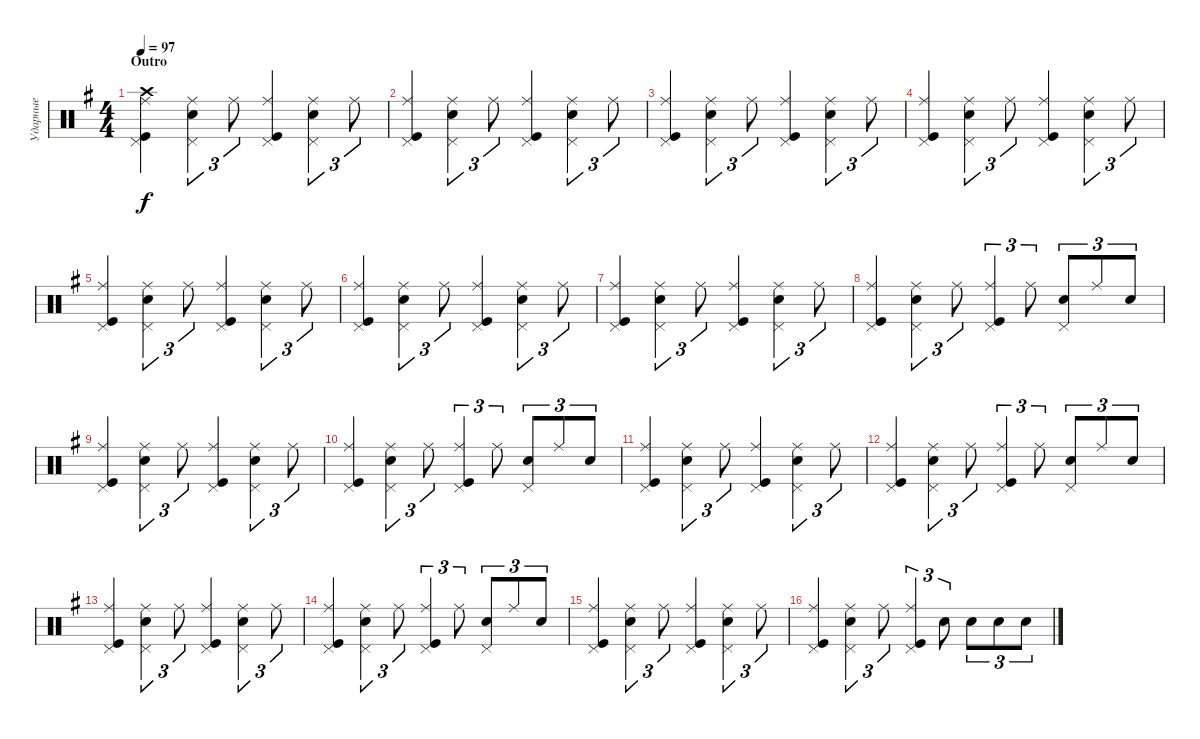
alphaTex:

\track ("Ударные" "Ударные") {instrument percussion}
\staff {score}
\articulation defaults
\ts (4 4)
\section ("" "Outro")
\tempo 97
\clef neutral
\ks eminor
("Kick (hit)" "Ride (middle)" "Pedal Hi-Hat (hit)" "Crash high (hit)").4{dy f} ("Snare (hit) 2" "Ride (middle)" "Pedal Hi-Hat (hit)").4{tu (3 2)} "Ride (middle)".8{tu (3 2)} ("Kick (hit)" "Ride (middle)" "Pedal Hi-Hat (hit)").4 ("Snare (hit) 2" "Ride (middle)" "Pedal Hi-Hat (hit)").4{tu (3 2)} "Ride (middle)".8{tu (3 2)} |
("Kick (hit)" "Ride (middle)" "Pedal Hi-Hat (hit)").4 ("Snare (hit) 2" "Ride (middle)" "Pedal Hi-Hat (hit)").4{tu (3 2)} "Ride (middle)".8{tu (3 2)} ("Kick (hit)" "Ride (middle)" "Pedal Hi-Hat (hit)").4 ("Snare (hit) 2" "Ride (middle)" "Pedal Hi-Hat (hit)").4{tu (3 2)} "Ride (middle)".8{tu (3 2)} |
("Kick (hit)" "Ride (middle)" "Pedal Hi-Hat (hit)").4 ("Snare (hit) 2" "Ride (middle)" "Pedal Hi-Hat (hit)").4{tu (3 2)} "Ride (middle)".8{tu (3 2)} ("Kick (hit)" "Ride (middle)" "Pedal Hi-Hat (hit)").4 ("Snare (hit) 2" "Ride (middle)" "Pedal Hi-Hat (hit)").4{tu (3 2)} "Ride (middle)".8{tu (3 2)} |
("Kick (hit)" "Ride (middle)" "Pedal Hi-Hat (hit)").4 ("Snare (hit) 2" "Ride (middle)" "Pedal Hi-Hat (hit)").4{tu (3 2)} "Ride (middle)".8{tu (3 2)} ("Kick (hit)" "Ride (middle)" "Pedal Hi-Hat (hit)").4 ("Snare (hit) 2" "Ride (middle)" "Pedal Hi-Hat (hit)").4{tu (3 2)} "Ride (middle)".8{tu (3 2)} |
("Kick (hit)" "Ride (middle)" "Pedal Hi-Hat (hit)").4 ("Snare (hit) 2" "Ride (middle)" "Pedal Hi-Hat (hit)").4{tu (3 2)} "Ride (middle)".8{tu (3 2)} ("Kick (hit)" "Ride (middle)" "Pedal Hi-Hat (hit)").4 ("Snare (hit) 2" "Ride (middle)" "Pedal Hi-Hat (hit)").4{tu (3 2)} "Ride (middle)".8{tu (3 2)} |
("Kick (hit)" "Ride (middle)" "Pedal Hi-Hat (hit)").4 ("Snare (hit) 2" "Ride (middle)" "Pedal Hi-Hat (hit)").4{tu (3 2)} "Ride (middle)".8{tu (3 2)} ("Kick (hit)" "Ride (middle)" "Pedal Hi-Hat (hit)").4 ("Snare (hit) 2" "Ride (middle)" "Pedal Hi-Hat (hit)").4{tu (3 2)} "Ride (middle)".8{tu (3 2)} |
("Kick (hit)" "Ride (middle)" "Pedal Hi-Hat (hit)").4 ("Snare (hit) 2" "Ride (middle)" "Pedal Hi-Hat (hit)").4{tu (3 2)} "Ride (middle)".8{tu (3 2)} ("Kick (hit)" "Ride (middle)" "Pedal Hi-Hat (hit)").4 ("Snare (hit) 2" "Ride (middle)" "Pedal Hi-Hat (hit)").4{tu (3 2)} "Ride (middle)".8{tu (3 2)} |
("Kick (hit)" "Ride (middle)" "Pedal Hi-Hat (hit)").4 ("Snare (hit) 2" "Ride (middle)" "Pedal Hi-Hat (hit)").4{tu (3 2)} "Ride (middle)".8{tu (3 2)} ("Kick (hit)" "Ride (middle)" "Pedal Hi-Hat (hit)").4{tu (3 2)} "Ride (middle)".8{tu (3 2)} ("Snare (hit) 2" "Pedal Hi-Hat (hit)").8{tu (3 2)} "Ride (middle)".8{tu (3 2)} "Snare (hit) 2".8{tu (3 2)} |
("Kick (hit)" "Ride (middle)" "Pedal Hi-Hat (hit)").4 ("Snare (hit) 2" "Ride (middle)" "Pedal Hi-Hat (hit)").4{tu (3 2)} "Ride (middle)".8{tu (3 2)} ("Kick (hit)" "Ride (middle)" "Pedal Hi-Hat (hit)").4 ("Snare (hit) 2" "Ride (middle)" "Pedal Hi-Hat (hit)").4{tu (3 2)} "Ride (middle)".8{tu (3 2)} |
("Kick (hit)" "Ride (middle)" "Pedal Hi-Hat (hit)").4 ("Snare (hit) 2" "Ride (middle)" "Pedal Hi-Hat (hit)").4{tu (3 2)} "Ride (middle)".8{tu (3 2)} ("Kick (hit)" "Ride (middle)" "Pedal Hi-Hat (hit)").4{tu (3 2)} "Ride (middle)".8{tu (3 2)} ("Snare (hit) 2" "Pedal Hi-Hat (hit)").8{tu (3 2)} "Ride (middle)".8{tu (3 2)} "Snare (hit) 2".8{tu (3 2)} |
("Kick (hit)" "Ride (middle)" "Pedal Hi-Hat (hit)").4 ("Snare (hit) 2" "Ride (middle)" "Pedal Hi-Hat (hit)").4{tu (3 2)} "Ride (middle)".8{tu (3 2)} ("Kick (hit)" "Ride (middle)" "Pedal Hi-Hat (hit)").4 ("Snare (hit) 2" "Ride (middle)" "Pedal Hi-Hat (hit)").4{tu (3 2)} "Ride (middle)".8{tu (3 2)} |
("Kick (hit)" "Ride (middle)" "Pedal Hi-Hat (hit)").4 ("Snare (hit) 2" "Ride (middle)" "Pedal Hi-Hat (hit)").4{tu (3 2)} "Ride (middle)".8{tu (3 2)} ("Kick (hit)" "Ride (middle)" "Pedal Hi-Hat (hit)").4{tu (3 2)} "Ride (middle)".8{tu (3 2)} ("Snare (hit) 2" "Pedal Hi-Hat (hit)").8{tu (3 2)} "Ride (middle)".8{tu (3 2)} "Snare (hit) 2".8{tu (3 2)} |
("Kick (hit)" "Ride (middle)" "Pedal Hi-Hat (hit)").4 ("Snare (hit) 2" "Ride (middle)" "Pedal Hi-Hat (hit)").4{tu (3 2)} "Ride (middle)".8{tu (3 2)} ("Kick (hit)" "Ride (middle)" "Pedal Hi-Hat (hit)").4 ("Snare (hit) 2" "Ride (middle)" "Pedal Hi-Hat (hit)").4{tu (3 2)} "Ride (middle)".8{tu (3 2)} |
("Kick (hit)" "Ride (middle)" "Pedal Hi-Hat (hit)").4 ("Snare (hit) 2" "Ride (middle)" "Pedal Hi-Hat (hit)").4{tu (3 2)} "Ride (middle)".8{tu (3 2)} ("Kick (hit)" "Ride (middle)" "Pedal Hi-Hat (hit)").4{tu (3 2)} "Ride (middle)".8{tu (3 2)} ("Snare (hit) 2" "Pedal Hi-Hat (hit)").8{tu (3 2)} "Ride (middle)".8{tu (3 2)} "Snare (hit) 2".8{tu (3 2)} |
("Kick (hit)" "Ride (middle)" "Pedal Hi-Hat (hit)").4 ("Snare (hit) 2" "Ride (middle)" "Pedal Hi-Hat (hit)").4{tu (3 2)} "Ride (middle)".8{tu (3 2)} ("Kick (hit)" "Ride (middle)" "Pedal Hi-Hat (hit)").4 ("Snare (hit) 2" "Ride (middle)" "Pedal Hi-Hat (hit)").4{tu (3 2)} "Ride (middle)".8{tu (3 2)} |
("Kick (hit)" "Ride (middle)" "Pedal Hi-Hat (hit)").4 ("Snare (hit) 2" "Ride (middle)" "Pedal Hi-Hat (hit)").4{tu (3 2)} "Ride (middle)".8{tu (3 2)} ("Kick (hit)" "Ride (middle)" "Pedal Hi-Hat (hit)").4{tu (3 2)} "Snare (hit) 2".8{tu (3 2)} "Snare (hit) 2".8{tu (3 2)} "Snare (hit) 2".8{tu (3 2)} "Snare (hit) 2".8{tu (3 2)}
